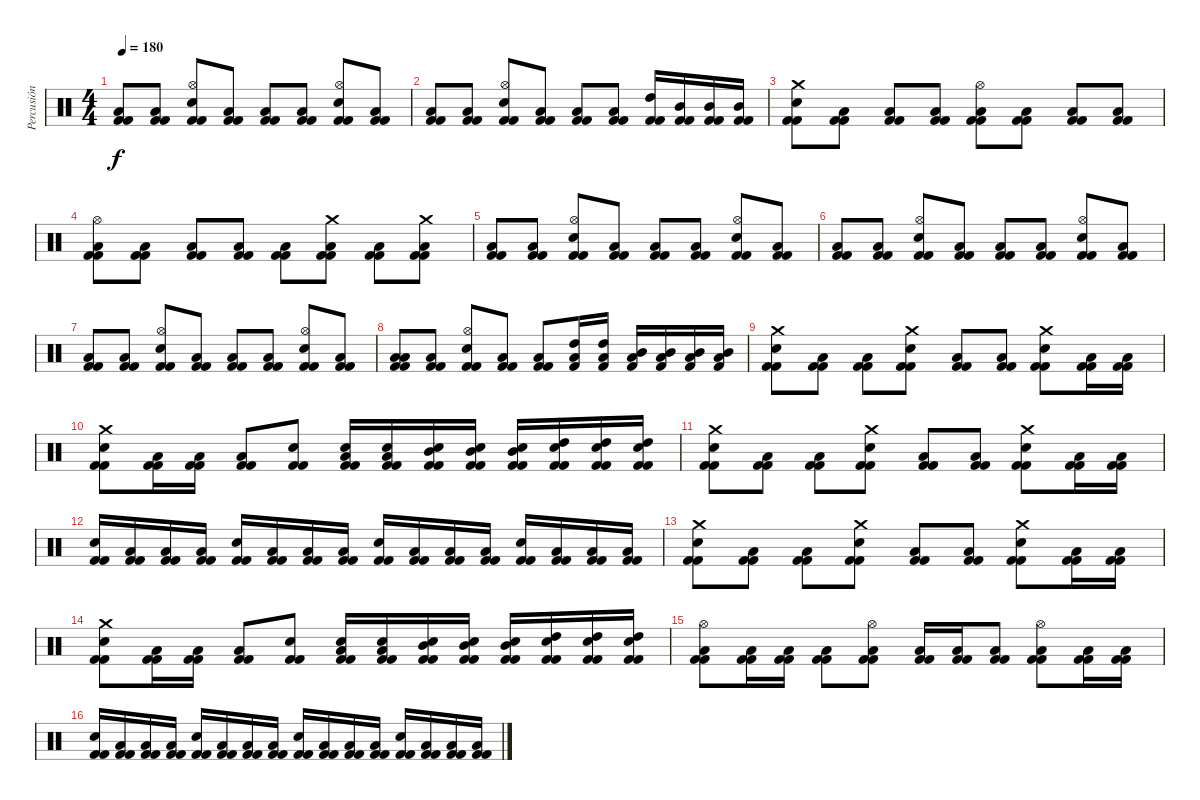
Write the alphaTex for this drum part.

\track ("Percusión" "Percusión") {instrument percussion}
\staff {score}
\articulation defaults
\ts (4 4)
\tempo 180
\clef neutral
\ks c
("Kick (hit) 2" "Kick (hit) 2" "Low Floor Tom (hit)").8{dy f} ("Kick (hit) 2" "Kick (hit) 2" "Low Floor Tom (hit)").8 ("Hi-Hat (open)" "Kick (hit) 2" "Kick (hit) 2" "Snare (hit) 2").8 ("Kick (hit) 2" "Kick (hit) 2" "Low Floor Tom (hit)").8 ("Kick (hit) 2" "Kick (hit) 2" "Low Floor Tom (hit)").8 ("Kick (hit) 2" "Kick (hit) 2" "Low Floor Tom (hit)").8 ("Hi-Hat (open)" "Kick (hit) 2" "Kick (hit) 2" "Snare (hit) 2").8 ("Kick (hit) 2" "Kick (hit) 2" "Low Floor Tom (hit)").8 |
("Kick (hit) 2" "Kick (hit) 2" "Low Floor Tom (hit)").8 ("Kick (hit) 2" "Kick (hit) 2" "Low Floor Tom (hit)").8 ("Hi-Hat (open)" "Kick (hit) 2" "Kick (hit) 2" "Snare (hit) 2").8 ("Kick (hit) 2" "Kick (hit) 2" "Low Floor Tom (hit)").8 ("Kick (hit) 2" "Kick (hit) 2" "Low Floor Tom (hit)").8 ("Kick (hit) 2" "Kick (hit) 2" "Low Floor Tom (hit)").8 ("Kick (hit) 2" "Kick (hit) 2" "High Tom (hit)").16 ("Kick (hit) 2" "Kick (hit) 2" "Mid Tom (hit)").16 ("Kick (hit) 2" "Kick (hit) 2" "Mid Tom (hit)").16 ("Kick (hit) 2" "Kick (hit) 2" "Mid Tom (hit)").16 |
("Crash medium (hit)" "Kick (hit) 2" "Kick (hit) 2" "Snare (hit) 2").8 ("Kick (hit) 2" "Kick (hit) 2" "Low Floor Tom (hit)").8 ("Kick (hit) 2" "Kick (hit) 2" "Low Floor Tom (hit)").8 ("Kick (hit) 2" "Kick (hit) 2" "Low Floor Tom (hit)").8 ("Hi-Hat (open)" "Kick (hit) 2" "Kick (hit) 2" "Low Floor Tom (hit)").8 ("Kick (hit) 2" "Kick (hit) 2" "Low Floor Tom (hit)").8 ("Kick (hit) 2" "Kick (hit) 2" "Low Floor Tom (hit)").8 ("Kick (hit) 2" "Kick (hit) 2" "Low Floor Tom (hit)").8 |
("Hi-Hat (open)" "Kick (hit) 2" "Kick (hit) 2" "Low Floor Tom (hit)").8 ("Kick (hit) 2" "Kick (hit) 2" "Low Floor Tom (hit)").8 ("Kick (hit) 2" "Kick (hit) 2" "Low Floor Tom (hit)").8 ("Kick (hit) 2" "Kick (hit) 2" "Low Floor Tom (hit)").8 ("Kick (hit) 2" "Kick (hit) 2" "Low Floor Tom (hit)").8 ("Crash medium (hit)" "Kick (hit) 2" "Kick (hit) 2" "Low Floor Tom (hit)").8 ("Kick (hit) 2" "Kick (hit) 2" "Low Floor Tom (hit)").8 ("Crash medium (hit)" "Kick (hit) 2" "Kick (hit) 2" "Low Floor Tom (hit)").8 |
("Kick (hit) 2" "Kick (hit) 2" "Low Floor Tom (hit)").8 ("Kick (hit) 2" "Kick (hit) 2" "Low Floor Tom (hit)").8 ("Hi-Hat (open)" "Kick (hit) 2" "Kick (hit) 2" "Snare (hit) 2").8 ("Kick (hit) 2" "Kick (hit) 2" "Low Floor Tom (hit)").8 ("Kick (hit) 2" "Kick (hit) 2" "Low Floor Tom (hit)").8 ("Kick (hit) 2" "Kick (hit) 2" "Low Floor Tom (hit)").8 ("Hi-Hat (open)" "Kick (hit) 2" "Kick (hit) 2" "Snare (hit) 2").8 ("Kick (hit) 2" "Kick (hit) 2" "Low Floor Tom (hit)").8 |
("Kick (hit) 2" "Kick (hit) 2" "Low Floor Tom (hit)").8 ("Kick (hit) 2" "Kick (hit) 2" "Low Floor Tom (hit)").8 ("Hi-Hat (open)" "Kick (hit) 2" "Kick (hit) 2" "Snare (hit) 2").8 ("Kick (hit) 2" "Kick (hit) 2" "Low Floor Tom (hit)").8 ("Kick (hit) 2" "Kick (hit) 2" "Low Floor Tom (hit)").8 ("Kick (hit) 2" "Kick (hit) 2" "Low Floor Tom (hit)").8 ("Hi-Hat (open)" "Kick (hit) 2" "Kick (hit) 2" "Snare (hit) 2").8 ("Kick (hit) 2" "Kick (hit) 2" "Low Floor Tom (hit)").8 |
("Kick (hit) 2" "Kick (hit) 2" "Low Floor Tom (hit)").8 ("Kick (hit) 2" "Kick (hit) 2" "Low Floor Tom (hit)").8 ("Hi-Hat (open)" "Kick (hit) 2" "Kick (hit) 2" "Snare (hit) 2").8 ("Kick (hit) 2" "Kick (hit) 2" "Low Floor Tom (hit)").8 ("Kick (hit) 2" "Kick (hit) 2" "Low Floor Tom (hit)").8 ("Kick (hit) 2" "Kick (hit) 2" "Low Floor Tom (hit)").8 ("Hi-Hat (open)" "Kick (hit) 2" "Kick (hit) 2" "Snare (hit) 2").8 ("Kick (hit) 2" "Kick (hit) 2" "Low Floor Tom (hit)").8 |
("Low Floor Tom (hit)" "Kick (hit) 2" "Kick (hit) 2" "Low Floor Tom (hit)").8 ("Kick (hit) 2" "Kick (hit) 2" "Low Floor Tom (hit)").8 ("Hi-Hat (open)" "Kick (hit) 2" "Kick (hit) 2" "Snare (hit) 2").8 ("Kick (hit) 2" "Kick (hit) 2" "Low Floor Tom (hit)").8 ("Kick (hit) 2" "Kick (hit) 2" "Low Floor Tom (hit)").8 ("Low Floor Tom (hit)" "Kick (hit) 2" "High Tom (hit)").16 ("Low Floor Tom (hit)" "Kick (hit) 2" "High Tom (hit)").16 ("Low Floor Tom (hit)" "Kick (hit) 2" "Mid Tom (hit)").16 ("Low Floor Tom (hit)" "Kick (hit) 2" "Mid Tom (hit)").16 ("Low Floor Tom (hit)" "Kick (hit) 2" "Mid Tom (hit)").16 ("Low Floor Tom (hit)" "Kick (hit) 2" "Mid Tom (hit)").16 |
("Crash medium (hit)" "Kick (hit) 2" "Kick (hit) 2" "Snare (hit) 2").8 ("Kick (hit) 2" "Kick (hit) 2" "Low Floor Tom (hit)").8 ("Kick (hit) 2" "Kick (hit) 2" "Low Floor Tom (hit)").8 ("Crash medium (hit)" "Kick (hit) 2" "Kick (hit) 2" "Snare (hit) 2").8 ("Kick (hit) 2" "Kick (hit) 2" "Low Floor Tom (hit)").8 ("Kick (hit) 2" "Kick (hit) 2" "Low Floor Tom (hit)").8 ("Crash medium (hit)" "Kick (hit) 2" "Kick (hit) 2" "Snare (hit) 2").8 ("Kick (hit) 2" "Kick (hit) 2" "Low Floor Tom (hit)").16 ("Kick (hit) 2" "Kick (hit) 2" "Low Floor Tom (hit)").16 |
("Crash medium (hit)" "Kick (hit) 2" "Kick (hit) 2" "Snare (hit) 2").8 ("Kick (hit) 2" "Kick (hit) 2" "Low Floor Tom (hit)").16 ("Kick (hit) 2" "Kick (hit) 2" "Low Floor Tom (hit)").16 ("Kick (hit) 2" "Kick (hit) 2" "Low Floor Tom (hit)").8 ("Kick (hit) 2" "Kick (hit) 2" "Snare (hit) 2").8 ("Snare (hit) 2" "Kick (hit) 2" "Kick (hit) 2" "Low Tom (hit)").16 ("Snare (hit) 2" "Kick (hit) 2" "Kick (hit) 2" "Low Tom (hit)").16 ("Snare (hit) 2" "Kick (hit) 2" "Kick (hit) 2" "Mid Tom (hit)").16 ("Snare (hit) 2" "Kick (hit) 2" "Kick (hit) 2" "Mid Tom (hit)").16 ("Electric Snare (hit)" "Kick (hit) 2" "Kick (hit) 2" "Mid Tom (hit)").16 ("Electric Snare (hit)" "Kick (hit) 2" "Kick (hit) 2" "High Tom (hit)").16 ("Electric Snare (hit)" "Kick (hit) 2" "Kick (hit) 2" "High Tom (hit)").16 ("Electric Snare (hit)" "Kick (hit) 2" "Kick (hit) 2" "High Tom (hit)").16 |
("Crash medium (hit)" "Kick (hit) 2" "Kick (hit) 2" "Snare (hit) 2").8 ("Kick (hit) 2" "Kick (hit) 2" "Low Floor Tom (hit)").8 ("Kick (hit) 2" "Kick (hit) 2" "Low Floor Tom (hit)").8 ("Crash medium (hit)" "Kick (hit) 2" "Kick (hit) 2" "Snare (hit) 2").8 ("Kick (hit) 2" "Kick (hit) 2" "Low Floor Tom (hit)").8 ("Kick (hit) 2" "Kick (hit) 2" "Low Floor Tom (hit)").8 ("Crash medium (hit)" "Kick (hit) 2" "Kick (hit) 2" "Snare (hit) 2").8 ("Kick (hit) 2" "Kick (hit) 2" "Low Floor Tom (hit)").16 ("Kick (hit) 2" "Kick (hit) 2" "Low Floor Tom (hit)").16 |
("Kick (hit) 2" "Kick (hit) 2" "Snare (hit) 2").16 ("Kick (hit) 2" "Kick (hit) 2" "Low Floor Tom (hit)").16 ("Kick (hit) 2" "Kick (hit) 2" "Low Floor Tom (hit)").16 ("Kick (hit) 2" "Kick (hit) 2" "Low Floor Tom (hit)").16 ("Kick (hit) 2" "Kick (hit) 2" "Snare (hit) 2").16 ("Kick (hit) 2" "Kick (hit) 2" "Low Floor Tom (hit)").16 ("Kick (hit) 2" "Kick (hit) 2" "Low Floor Tom (hit)").16 ("Kick (hit) 2" "Kick (hit) 2" "Low Floor Tom (hit)").16 ("Kick (hit) 2" "Kick (hit) 2" "Snare (hit) 2").16 ("Kick (hit) 2" "Kick (hit) 2" "Low Floor Tom (hit)").16 ("Kick (hit) 2" "Kick (hit) 2" "Low Floor Tom (hit)").16 ("Kick (hit) 2" "Kick (hit) 2" "Low Floor Tom (hit)").16 ("Kick (hit) 2" "Kick (hit) 2" "Snare (hit) 2").16 ("Kick (hit) 2" "Kick (hit) 2" "Low Floor Tom (hit)").16 ("Kick (hit) 2" "Kick (hit) 2" "Low Floor Tom (hit)").16 ("Kick (hit) 2" "Kick (hit) 2" "Low Floor Tom (hit)").16 |
("Crash medium (hit)" "Kick (hit) 2" "Kick (hit) 2" "Snare (hit) 2").8 ("Kick (hit) 2" "Kick (hit) 2" "Low Floor Tom (hit)").8 ("Kick (hit) 2" "Kick (hit) 2" "Low Floor Tom (hit)").8 ("Crash medium (hit)" "Kick (hit) 2" "Kick (hit) 2" "Snare (hit) 2").8 ("Kick (hit) 2" "Kick (hit) 2" "Low Floor Tom (hit)").8 ("Kick (hit) 2" "Kick (hit) 2" "Low Floor Tom (hit)").8 ("Crash medium (hit)" "Kick (hit) 2" "Kick (hit) 2" "Snare (hit) 2").8 ("Kick (hit) 2" "Kick (hit) 2" "Low Floor Tom (hit)").16 ("Kick (hit) 2" "Kick (hit) 2" "Low Floor Tom (hit)").16 |
("Crash medium (hit)" "Kick (hit) 2" "Kick (hit) 2" "Snare (hit) 2").8 ("Kick (hit) 2" "Kick (hit) 2" "Low Floor Tom (hit)").16 ("Kick (hit) 2" "Kick (hit) 2" "Low Floor Tom (hit)").16 ("Kick (hit) 2" "Kick (hit) 2" "Low Floor Tom (hit)").8 ("Kick (hit) 2" "Kick (hit) 2" "Snare (hit) 2").8 ("Snare (hit) 2" "Kick (hit) 2" "Kick (hit) 2" "Low Tom (hit)").16 ("Snare (hit) 2" "Kick (hit) 2" "Kick (hit) 2" "Low Tom (hit)").16 ("Snare (hit) 2" "Kick (hit) 2" "Kick (hit) 2" "Mid Tom (hit)").16 ("Snare (hit) 2" "Kick (hit) 2" "Kick (hit) 2" "Mid Tom (hit)").16 ("Electric Snare (hit)" "Kick (hit) 2" "Kick (hit) 2" "Mid Tom (hit)").16 ("Electric Snare (hit)" "Kick (hit) 2" "Kick (hit) 2" "High Tom (hit)").16 ("Electric Snare (hit)" "Kick (hit) 2" "Kick (hit) 2" "High Tom (hit)").16 ("Electric Snare (hit)" "Kick (hit) 2" "Kick (hit) 2" "High Tom (hit)").16 |
("Hi-Hat (open)" "Kick (hit) 2" "Kick (hit) 2" "Low Floor Tom (hit)").8 ("Kick (hit) 2" "Kick (hit) 2" "Low Floor Tom (hit)").16 ("Kick (hit) 2" "Kick (hit) 2" "Low Floor Tom (hit)").16 ("Kick (hit) 2" "Kick (hit) 2" "Low Floor Tom (hit)").8 ("Hi-Hat (open)" "Kick (hit) 2" "Kick (hit) 2" "Low Floor Tom (hit)").8 ("Kick (hit) 2" "Kick (hit) 2" "Low Floor Tom (hit)").16 ("Kick (hit) 2" "Kick (hit) 2" "Low Floor Tom (hit)").16 ("Kick (hit) 2" "Kick (hit) 2" "Low Floor Tom (hit)").8 ("Hi-Hat (open)" "Kick (hit) 2" "Kick (hit) 2" "Low Floor Tom (hit)").8 ("Kick (hit) 2" "Kick (hit) 2" "Low Floor Tom (hit)").16 ("Kick (hit) 2" "Kick (hit) 2" "Low Floor Tom (hit)").16 |
("Kick (hit) 2" "Kick (hit) 2" "Snare (hit) 2").16 ("Kick (hit) 2" "Kick (hit) 2" "Low Floor Tom (hit)").16 ("Kick (hit) 2" "Kick (hit) 2" "Low Floor Tom (hit)").16 ("Kick (hit) 2" "Kick (hit) 2" "Low Floor Tom (hit)").16 ("Kick (hit) 2" "Kick (hit) 2" "Snare (hit) 2").16 ("Kick (hit) 2" "Kick (hit) 2" "Low Floor Tom (hit)").16 ("Kick (hit) 2" "Kick (hit) 2" "Low Floor Tom (hit)").16 ("Kick (hit) 2" "Kick (hit) 2" "Low Floor Tom (hit)").16 ("Kick (hit) 2" "Kick (hit) 2" "Snare (hit) 2").16 ("Kick (hit) 2" "Kick (hit) 2" "Low Floor Tom (hit)").16 ("Kick (hit) 2" "Kick (hit) 2" "Low Floor Tom (hit)").16 ("Kick (hit) 2" "Kick (hit) 2" "Low Floor Tom (hit)").16 ("Kick (hit) 2" "Kick (hit) 2" "Snare (hit) 2").16 ("Kick (hit) 2" "Kick (hit) 2" "Low Floor Tom (hit)").16 ("Kick (hit) 2" "Kick (hit) 2" "Low Floor Tom (hit)").16 ("Kick (hit) 2" "Kick (hit) 2" "Low Floor Tom (hit)").16
